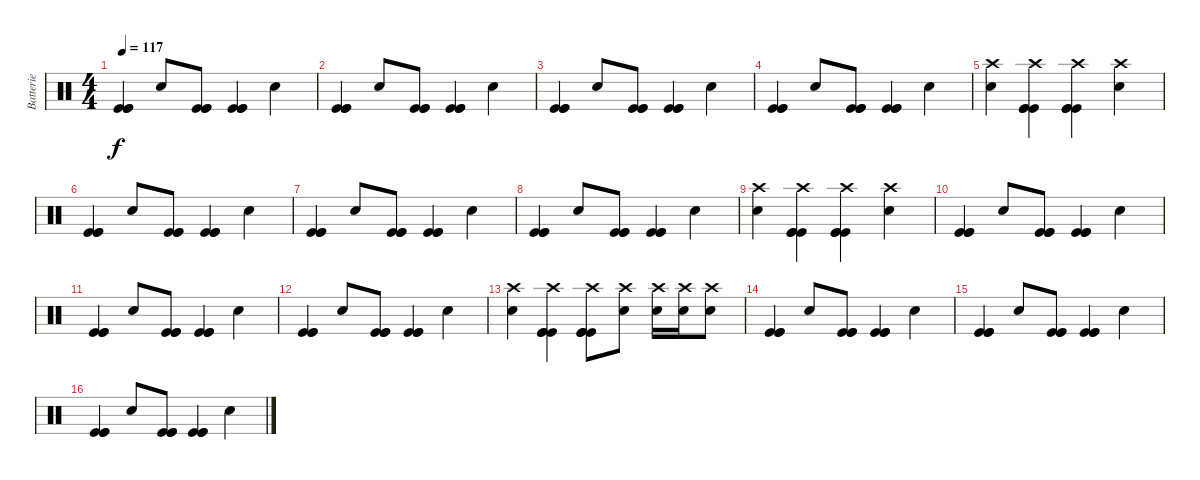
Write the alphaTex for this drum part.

\track ("Batterie" "Batterie") {instrument percussion}
\staff {score}
\articulation defaults
\ts (4 4)
\tempo 117
\clef neutral
\ks c
("Kick (hit)" "Kick (hit)" "Kick (hit)").4{dy f} "Electric Snare (hit)".8 ("Kick (hit)" "Kick (hit)" "Kick (hit)").8 ("Kick (hit)" "Kick (hit)" "Kick (hit)").4 "Electric Snare (hit)".4 |
("Kick (hit)" "Kick (hit)" "Kick (hit)").4 "Electric Snare (hit)".8 ("Kick (hit)" "Kick (hit)" "Kick (hit)").8 ("Kick (hit)" "Kick (hit)" "Kick (hit)").4 "Electric Snare (hit)".4 |
("Kick (hit)" "Kick (hit)" "Kick (hit)").4 "Electric Snare (hit)".8 ("Kick (hit)" "Kick (hit)" "Kick (hit)").8 ("Kick (hit)" "Kick (hit)" "Kick (hit)").4 "Electric Snare (hit)".4 |
("Kick (hit)" "Kick (hit)" "Kick (hit)").4 "Electric Snare (hit)".8 ("Kick (hit)" "Kick (hit)" "Kick (hit)").8 ("Kick (hit)" "Kick (hit)" "Kick (hit)").4 "Electric Snare (hit)".4 |
("Electric Snare (hit)" "Crash high (hit)").4 ("Kick (hit)" "Kick (hit)" "Kick (hit)" "Crash high (hit)").4 ("Kick (hit)" "Kick (hit)" "Kick (hit)" "Crash high (hit)").4 ("Electric Snare (hit)" "Crash high (hit)").4 |
("Kick (hit)" "Kick (hit)" "Kick (hit)").4 "Electric Snare (hit)".8 ("Kick (hit)" "Kick (hit)" "Kick (hit)").8 ("Kick (hit)" "Kick (hit)" "Kick (hit)").4 "Electric Snare (hit)".4 |
("Kick (hit)" "Kick (hit)" "Kick (hit)").4 "Electric Snare (hit)".8 ("Kick (hit)" "Kick (hit)" "Kick (hit)").8 ("Kick (hit)" "Kick (hit)" "Kick (hit)").4 "Electric Snare (hit)".4 |
("Kick (hit)" "Kick (hit)" "Kick (hit)").4 "Electric Snare (hit)".8 ("Kick (hit)" "Kick (hit)" "Kick (hit)").8 ("Kick (hit)" "Kick (hit)" "Kick (hit)").4 "Electric Snare (hit)".4 |
("Electric Snare (hit)" "Crash high (hit)").4 ("Kick (hit)" "Kick (hit)" "Kick (hit)" "Crash high (hit)").4 ("Kick (hit)" "Kick (hit)" "Kick (hit)" "Crash high (hit)").4 ("Electric Snare (hit)" "Crash high (hit)").4 |
("Kick (hit)" "Kick (hit)" "Kick (hit)").4 "Electric Snare (hit)".8 ("Kick (hit)" "Kick (hit)" "Kick (hit)").8 ("Kick (hit)" "Kick (hit)" "Kick (hit)").4 "Electric Snare (hit)".4 |
("Kick (hit)" "Kick (hit)" "Kick (hit)").4 "Electric Snare (hit)".8 ("Kick (hit)" "Kick (hit)" "Kick (hit)").8 ("Kick (hit)" "Kick (hit)" "Kick (hit)").4 "Electric Snare (hit)".4 |
("Kick (hit)" "Kick (hit)" "Kick (hit)").4 "Electric Snare (hit)".8 ("Kick (hit)" "Kick (hit)" "Kick (hit)").8 ("Kick (hit)" "Kick (hit)" "Kick (hit)").4 "Electric Snare (hit)".4 |
("Electric Snare (hit)" "Crash high (hit)").4 ("Kick (hit)" "Kick (hit)" "Kick (hit)" "Crash high (hit)").4 ("Kick (hit)" "Kick (hit)" "Kick (hit)" "Crash high (hit)").8 ("Electric Snare (hit)" "Crash high (hit)").8 ("Electric Snare (hit)" "Crash high (hit)").16 ("Electric Snare (hit)" "Crash high (hit)").16 ("Electric Snare (hit)" "Crash high (hit)").8 |
("Kick (hit)" "Kick (hit)" "Kick (hit)").4 "Electric Snare (hit)".8 ("Kick (hit)" "Kick (hit)" "Kick (hit)").8 ("Kick (hit)" "Kick (hit)" "Kick (hit)").4 "Electric Snare (hit)".4 |
("Kick (hit)" "Kick (hit)" "Kick (hit)").4 "Electric Snare (hit)".8 ("Kick (hit)" "Kick (hit)" "Kick (hit)").8 ("Kick (hit)" "Kick (hit)" "Kick (hit)").4 "Electric Snare (hit)".4 |
("Kick (hit)" "Kick (hit)" "Kick (hit)").4 "Electric Snare (hit)".8 ("Kick (hit)" "Kick (hit)" "Kick (hit)").8 ("Kick (hit)" "Kick (hit)" "Kick (hit)").4 "Electric Snare (hit)".4
